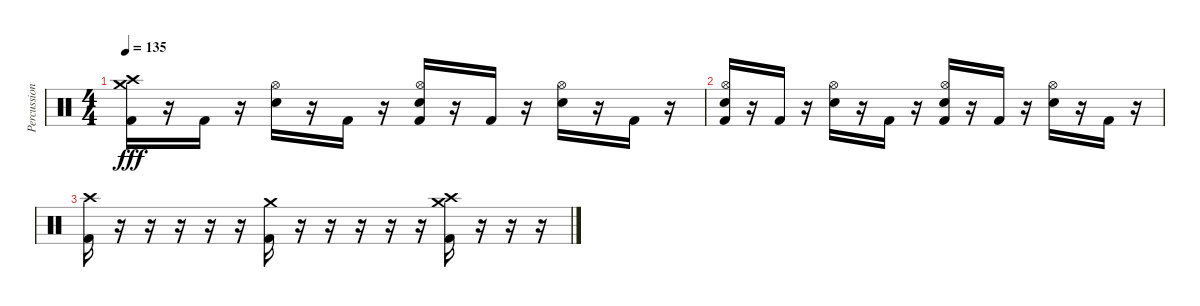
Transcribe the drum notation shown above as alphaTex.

\track ("Percussion" "Percussion") {instrument percussion}
\staff {score}
\articulation defaults
\ts (4 4)
\tempo 135
\clef neutral
\ks c
("Crash medium (hit)" "Crash high (hit)" "Kick (hit) 2").16{dy fff} r.16 "Kick (hit) 2".16 r.16 ("Hi-Hat (open)" "Snare (hit) 2").16 r.16 "Kick (hit) 2".16 r.16 ("Hi-Hat (open)" "Snare (hit) 2" "Kick (hit) 2").16 r.16 "Kick (hit) 2".16 r.16 ("Hi-Hat (open)" "Snare (hit) 2").16 r.16 "Kick (hit) 2".16 r.16 |
("Hi-Hat (open)" "Snare (hit) 2" "Kick (hit) 2").16 r.16 "Kick (hit) 2".16 r.16 ("Hi-Hat (open)" "Snare (hit) 2").16 r.16 "Kick (hit) 2".16 r.16 ("Hi-Hat (open)" "Snare (hit) 2" "Kick (hit) 2").16 r.16 "Kick (hit) 2".16 r.16 ("Hi-Hat (open)" "Snare (hit) 2").16 r.16 "Kick (hit) 2".16 r.16 |
("Crash high (hit)" "Kick (hit) 2").16 r.16 r.16 r.16 r.16 r.16 ("Crash medium (hit)" "Kick (hit) 2").16 r.16 r.16 r.16 r.16 r.16 ("Crash high (hit)" "Crash medium (hit)" "Kick (hit) 2").16 r.16 r.16 r.16
